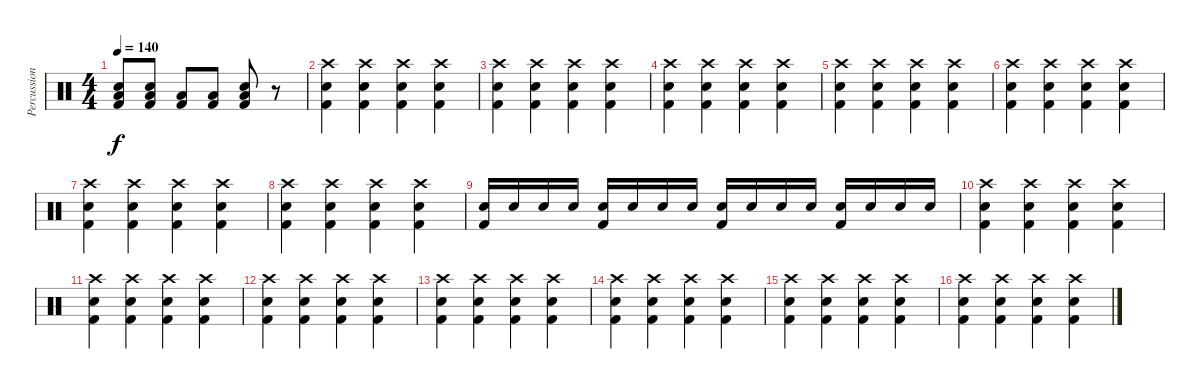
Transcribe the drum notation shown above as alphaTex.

\track ("Percussion" "Percussion") {instrument percussion}
\staff {score}
\articulation defaults
\ts (4 4)
\tempo 140
\clef neutral
\ks c
("Electric Snare (hit)" "Low Tom (hit)" "Kick (hit) 2").8{dy f} ("Electric Snare (hit)" "Low Tom (hit)" "Kick (hit) 2").8 ("Low Tom (hit)" "Kick (hit) 2").8 ("Low Tom (hit)" "Kick (hit) 2").8 ("Electric Snare (hit)" "Low Tom (hit)" "Kick (hit) 2").8 r.8 |
("Crash high (hit)" "Electric Snare (hit)" "Kick (hit) 2").4 ("Crash high (hit)" "Electric Snare (hit)" "Kick (hit) 2").4 ("Crash high (hit)" "Electric Snare (hit)" "Kick (hit) 2").4 ("Crash high (hit)" "Electric Snare (hit)" "Kick (hit) 2").4 |
("Crash high (hit)" "Electric Snare (hit)" "Kick (hit) 2").4 ("Crash high (hit)" "Electric Snare (hit)" "Kick (hit) 2").4 ("Crash high (hit)" "Electric Snare (hit)" "Kick (hit) 2").4 ("Crash high (hit)" "Electric Snare (hit)" "Kick (hit) 2").4 |
("Crash high (hit)" "Electric Snare (hit)" "Kick (hit) 2").4 ("Crash high (hit)" "Electric Snare (hit)" "Kick (hit) 2").4 ("Crash high (hit)" "Electric Snare (hit)" "Kick (hit) 2").4 ("Crash high (hit)" "Electric Snare (hit)" "Kick (hit) 2").4 |
("Crash high (hit)" "Electric Snare (hit)" "Kick (hit) 2").4 ("Crash high (hit)" "Electric Snare (hit)" "Kick (hit) 2").4 ("Crash high (hit)" "Electric Snare (hit)" "Kick (hit) 2").4 ("Crash high (hit)" "Electric Snare (hit)" "Kick (hit) 2").4 |
("Crash high (hit)" "Electric Snare (hit)" "Kick (hit) 2").4 ("Crash high (hit)" "Electric Snare (hit)" "Kick (hit) 2").4 ("Crash high (hit)" "Electric Snare (hit)" "Kick (hit) 2").4 ("Crash high (hit)" "Electric Snare (hit)" "Kick (hit) 2").4 |
("Crash high (hit)" "Electric Snare (hit)" "Kick (hit) 2").4 ("Crash high (hit)" "Electric Snare (hit)" "Kick (hit) 2").4 ("Crash high (hit)" "Electric Snare (hit)" "Kick (hit) 2").4 ("Crash high (hit)" "Electric Snare (hit)" "Kick (hit) 2").4 |
("Crash high (hit)" "Electric Snare (hit)" "Kick (hit) 2").4 ("Crash high (hit)" "Electric Snare (hit)" "Kick (hit) 2").4 ("Crash high (hit)" "Electric Snare (hit)" "Kick (hit) 2").4 ("Crash high (hit)" "Electric Snare (hit)" "Kick (hit) 2").4 |
("Electric Snare (hit)" "Kick (hit) 2").16 "Electric Snare (hit)".16 "Electric Snare (hit)".16 "Electric Snare (hit)".16 ("Electric Snare (hit)" "Kick (hit) 2").16 "Electric Snare (hit)".16 "Electric Snare (hit)".16 "Electric Snare (hit)".16 ("Electric Snare (hit)" "Kick (hit) 2").16 "Electric Snare (hit)".16 "Electric Snare (hit)".16 "Electric Snare (hit)".16 ("Electric Snare (hit)" "Kick (hit) 2").16 "Electric Snare (hit)".16 "Electric Snare (hit)".16 "Electric Snare (hit)".16 |
("Crash high (hit)" "Electric Snare (hit)" "Kick (hit) 2").4 ("Crash high (hit)" "Electric Snare (hit)" "Kick (hit) 2").4 ("Crash high (hit)" "Electric Snare (hit)" "Kick (hit) 2").4 ("Crash high (hit)" "Electric Snare (hit)" "Kick (hit) 2").4 |
("Crash high (hit)" "Electric Snare (hit)" "Kick (hit) 2").4 ("Crash high (hit)" "Electric Snare (hit)" "Kick (hit) 2").4 ("Crash high (hit)" "Electric Snare (hit)" "Kick (hit) 2").4 ("Crash high (hit)" "Electric Snare (hit)" "Kick (hit) 2").4 |
("Crash high (hit)" "Electric Snare (hit)" "Kick (hit) 2").4 ("Crash high (hit)" "Electric Snare (hit)" "Kick (hit) 2").4 ("Crash high (hit)" "Electric Snare (hit)" "Kick (hit) 2").4 ("Crash high (hit)" "Electric Snare (hit)" "Kick (hit) 2").4 |
("Crash high (hit)" "Electric Snare (hit)" "Kick (hit) 2").4 ("Crash high (hit)" "Electric Snare (hit)" "Kick (hit) 2").4 ("Crash high (hit)" "Electric Snare (hit)" "Kick (hit) 2").4 ("Crash high (hit)" "Electric Snare (hit)" "Kick (hit) 2").4 |
("Crash high (hit)" "Electric Snare (hit)" "Kick (hit) 2").4 ("Crash high (hit)" "Electric Snare (hit)" "Kick (hit) 2").4 ("Crash high (hit)" "Electric Snare (hit)" "Kick (hit) 2").4 ("Crash high (hit)" "Electric Snare (hit)" "Kick (hit) 2").4 |
("Crash high (hit)" "Electric Snare (hit)" "Kick (hit) 2").4 ("Crash high (hit)" "Electric Snare (hit)" "Kick (hit) 2").4 ("Crash high (hit)" "Electric Snare (hit)" "Kick (hit) 2").4 ("Crash high (hit)" "Electric Snare (hit)" "Kick (hit) 2").4 |
("Crash high (hit)" "Electric Snare (hit)" "Kick (hit) 2").4 ("Crash high (hit)" "Electric Snare (hit)" "Kick (hit) 2").4 ("Crash high (hit)" "Electric Snare (hit)" "Kick (hit) 2").4 ("Crash high (hit)" "Electric Snare (hit)" "Kick (hit) 2").4
